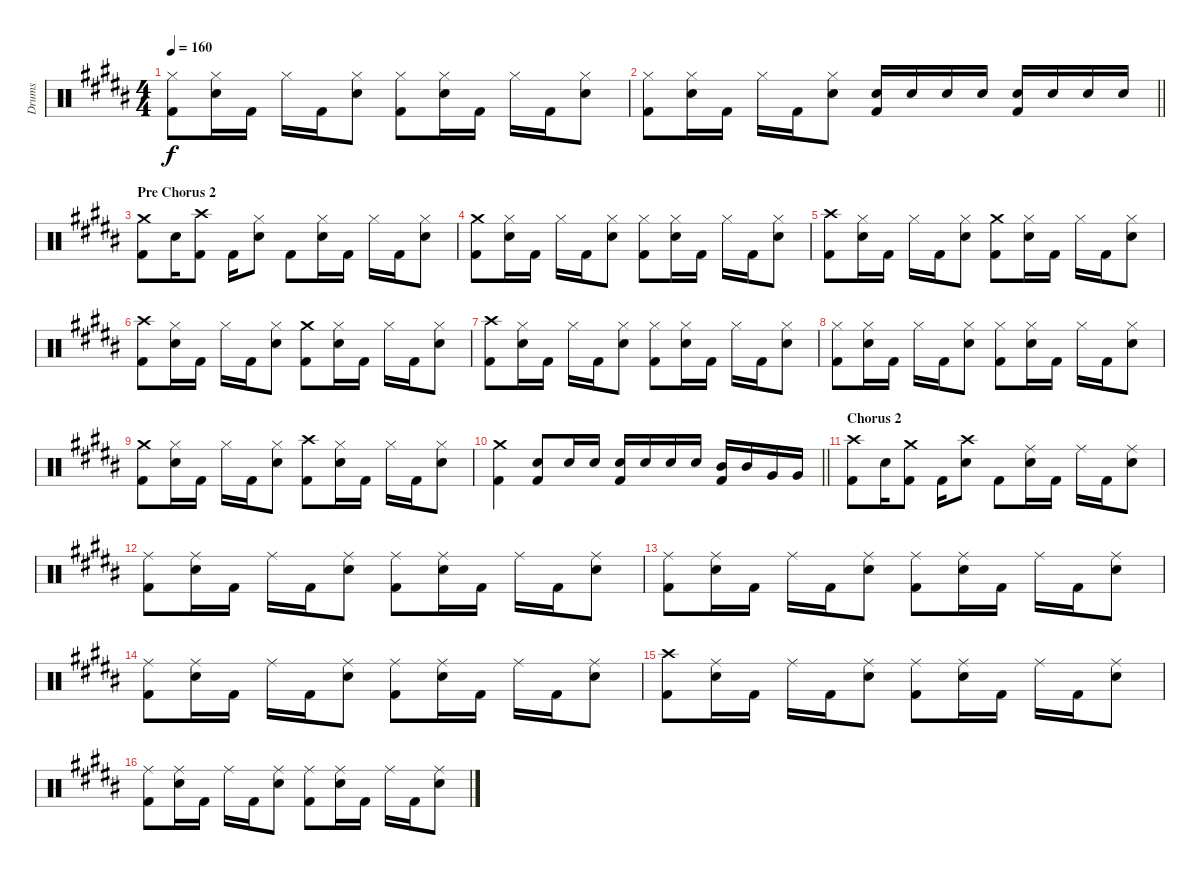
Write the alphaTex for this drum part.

\track ("Drums" "Drums") {instrument percussion}
\staff {score}
\articulation defaults
\ts (4 4)
\tempo 160
\clef neutral
\ks g#minor
("Hi-Hat (closed)" "Kick (hit) 2").8{dy f} ("Hi-Hat (closed)" "Electric Snare (hit)").16 "Kick (hit) 2".16 "Hi-Hat (closed)".16 "Kick (hit) 2".16 ("Hi-Hat (closed)" "Electric Snare (hit)").8 ("Hi-Hat (closed)" "Kick (hit) 2").8 ("Hi-Hat (closed)" "Electric Snare (hit)").16 "Kick (hit) 2".16 "Hi-Hat (closed)".16 "Kick (hit) 2".16 ("Hi-Hat (closed)" "Electric Snare (hit)").8 |
\barLineRight lightlight
("Hi-Hat (closed)" "Kick (hit) 2").8 ("Hi-Hat (closed)" "Electric Snare (hit)").16 "Kick (hit) 2".16 "Hi-Hat (closed)".16 "Kick (hit) 2".16 ("Hi-Hat (closed)" "Electric Snare (hit)").8 ("Electric Snare (hit)" "Kick (hit) 2").16 "Electric Snare (hit)".16 "Electric Snare (hit)".16 "Electric Snare (hit)".16 ("Electric Snare (hit)" "Kick (hit) 2").16 "Electric Snare (hit)".16 "Electric Snare (hit)".16 "Electric Snare (hit)".16 |
\section ("" "Pre Chorus 2")
("Crash medium (hit)" "Kick (hit) 2").8 "Electric Snare (hit)".16 ("Crash high (hit)" "Kick (hit) 2").8 "Kick (hit) 2".16 ("Hi-Hat (closed)" "Electric Snare (hit)").8 "Kick (hit) 2".8 ("Hi-Hat (closed)" "Electric Snare (hit)").16 "Kick (hit) 2".16 "Hi-Hat (closed)".16 "Kick (hit) 2".16 ("Hi-Hat (closed)" "Electric Snare (hit)").8 |
("Crash medium (hit)" "Kick (hit) 2").8 ("Hi-Hat (closed)" "Electric Snare (hit)").16 "Kick (hit) 2".16 "Hi-Hat (closed)".16 "Kick (hit) 2".16 ("Hi-Hat (closed)" "Electric Snare (hit)").8 ("Hi-Hat (closed)" "Kick (hit) 2").8 ("Hi-Hat (closed)" "Electric Snare (hit)").16 "Kick (hit) 2".16 "Hi-Hat (closed)".16 "Kick (hit) 2".16 ("Hi-Hat (closed)" "Electric Snare (hit)").8 |
("Crash high (hit)" "Kick (hit) 2").8 ("Hi-Hat (closed)" "Electric Snare (hit)").16 "Kick (hit) 2".16 "Hi-Hat (closed)".16 "Kick (hit) 2".16 ("Hi-Hat (closed)" "Electric Snare (hit)").8 ("Crash medium (hit)" "Kick (hit) 2").8 ("Hi-Hat (closed)" "Electric Snare (hit)").16 "Kick (hit) 2".16 "Hi-Hat (closed)".16 "Kick (hit) 2".16 ("Hi-Hat (closed)" "Electric Snare (hit)").8 |
("Crash high (hit)" "Kick (hit) 2").8 ("Hi-Hat (closed)" "Electric Snare (hit)").16 "Kick (hit) 2".16 "Hi-Hat (closed)".16 "Kick (hit) 2".16 ("Hi-Hat (closed)" "Electric Snare (hit)").8 ("Crash medium (hit)" "Kick (hit) 2").8 ("Hi-Hat (closed)" "Electric Snare (hit)").16 "Kick (hit) 2".16 "Hi-Hat (closed)".16 "Kick (hit) 2".16 ("Hi-Hat (closed)" "Electric Snare (hit)").8 |
("Crash high (hit)" "Kick (hit) 2").8 ("Hi-Hat (closed)" "Electric Snare (hit)").16 "Kick (hit) 2".16 "Hi-Hat (closed)".16 "Kick (hit) 2".16 ("Hi-Hat (closed)" "Electric Snare (hit)").8 ("Hi-Hat (closed)" "Kick (hit) 2").8 ("Hi-Hat (closed)" "Electric Snare (hit)").16 "Kick (hit) 2".16 "Hi-Hat (closed)".16 "Kick (hit) 2".16 ("Hi-Hat (closed)" "Electric Snare (hit)").8 |
("Hi-Hat (closed)" "Kick (hit) 2").8 ("Hi-Hat (closed)" "Electric Snare (hit)").16 "Kick (hit) 2".16 "Hi-Hat (closed)".16 "Kick (hit) 2".16 ("Hi-Hat (closed)" "Electric Snare (hit)").8 ("Hi-Hat (closed)" "Kick (hit) 2").8 ("Hi-Hat (closed)" "Electric Snare (hit)").16 "Kick (hit) 2".16 "Hi-Hat (closed)".16 "Kick (hit) 2".16 ("Hi-Hat (closed)" "Electric Snare (hit)").8 |
("Crash medium (hit)" "Kick (hit) 2").8 ("Hi-Hat (closed)" "Electric Snare (hit)").16 "Kick (hit) 2".16 "Hi-Hat (closed)".16 "Kick (hit) 2".16 ("Hi-Hat (closed)" "Electric Snare (hit)").8 ("Crash high (hit)" "Kick (hit) 2").8 ("Hi-Hat (closed)" "Electric Snare (hit)").16 "Kick (hit) 2".16 "Hi-Hat (closed)".16 "Kick (hit) 2".16 ("Hi-Hat (closed)" "Electric Snare (hit)").8 |
\barLineRight lightlight
("Crash medium (hit)" "Kick (hit) 2").4 ("Electric Snare (hit)" "Kick (hit) 2").8 "Electric Snare (hit)".16 "Electric Snare (hit)".16 ("Electric Snare (hit)" "Kick (hit) 2").16 "Electric Snare (hit)".16 "Electric Snare (hit)".16 "Electric Snare (hit)".16 ("Mid Tom (hit)" "Kick (hit) 2").16 "Mid Tom (hit)".16 "Very Low Tom (hit)".16 "Very Low Tom (hit)".16 |
\section ("" "Chorus 2")
("Crash high (hit)" "Kick (hit) 2").8 "Electric Snare (hit)".16 ("Crash medium (hit)" "Kick (hit) 2").8 "Kick (hit) 2".16 ("Crash high (hit)" "Electric Snare (hit)").8 "Kick (hit) 2".8 ("Ride (middle)" "Electric Snare (hit)").16 "Kick (hit) 2".16 "Ride (middle)".16 "Kick (hit) 2".16 ("Ride (middle)" "Electric Snare (hit)").8 |
("Ride (middle)" "Kick (hit) 2").8 ("Ride (middle)" "Electric Snare (hit)").16 "Kick (hit) 2".16 "Ride (middle)".16 "Kick (hit) 2".16 ("Ride (middle)" "Electric Snare (hit)").8 ("Ride (middle)" "Kick (hit) 2").8 ("Ride (middle)" "Electric Snare (hit)").16 "Kick (hit) 2".16 "Ride (middle)".16 "Kick (hit) 2".16 ("Ride (middle)" "Electric Snare (hit)").8 |
("Ride (middle)" "Kick (hit) 2").8 ("Ride (middle)" "Electric Snare (hit)").16 "Kick (hit) 2".16 "Ride (middle)".16 "Kick (hit) 2".16 ("Ride (middle)" "Electric Snare (hit)").8 ("Ride (middle)" "Kick (hit) 2").8 ("Ride (middle)" "Electric Snare (hit)").16 "Kick (hit) 2".16 "Ride (middle)".16 "Kick (hit) 2".16 ("Ride (middle)" "Electric Snare (hit)").8 |
("Ride (middle)" "Kick (hit) 2").8 ("Ride (middle)" "Electric Snare (hit)").16 "Kick (hit) 2".16 "Ride (middle)".16 "Kick (hit) 2".16 ("Ride (middle)" "Electric Snare (hit)").8 ("Ride (middle)" "Kick (hit) 2").8 ("Ride (middle)" "Electric Snare (hit)").16 "Kick (hit) 2".16 "Ride (middle)".16 "Kick (hit) 2".16 ("Ride (middle)" "Electric Snare (hit)").8 |
("Crash high (hit)" "Kick (hit) 2").8 ("Ride (middle)" "Electric Snare (hit)").16 "Kick (hit) 2".16 "Ride (middle)".16 "Kick (hit) 2".16 ("Ride (middle)" "Electric Snare (hit)").8 ("Ride (middle)" "Kick (hit) 2").8 ("Ride (middle)" "Electric Snare (hit)").16 "Kick (hit) 2".16 "Ride (middle)".16 "Kick (hit) 2".16 ("Ride (middle)" "Electric Snare (hit)").8 |
("Ride (middle)" "Kick (hit) 2").8 ("Ride (middle)" "Electric Snare (hit)").16 "Kick (hit) 2".16 "Ride (middle)".16 "Kick (hit) 2".16 ("Ride (middle)" "Electric Snare (hit)").8 ("Ride (middle)" "Kick (hit) 2").8 ("Ride (middle)" "Electric Snare (hit)").16 "Kick (hit) 2".16 "Ride (middle)".16 "Kick (hit) 2".16 ("Ride (middle)" "Electric Snare (hit)").8
